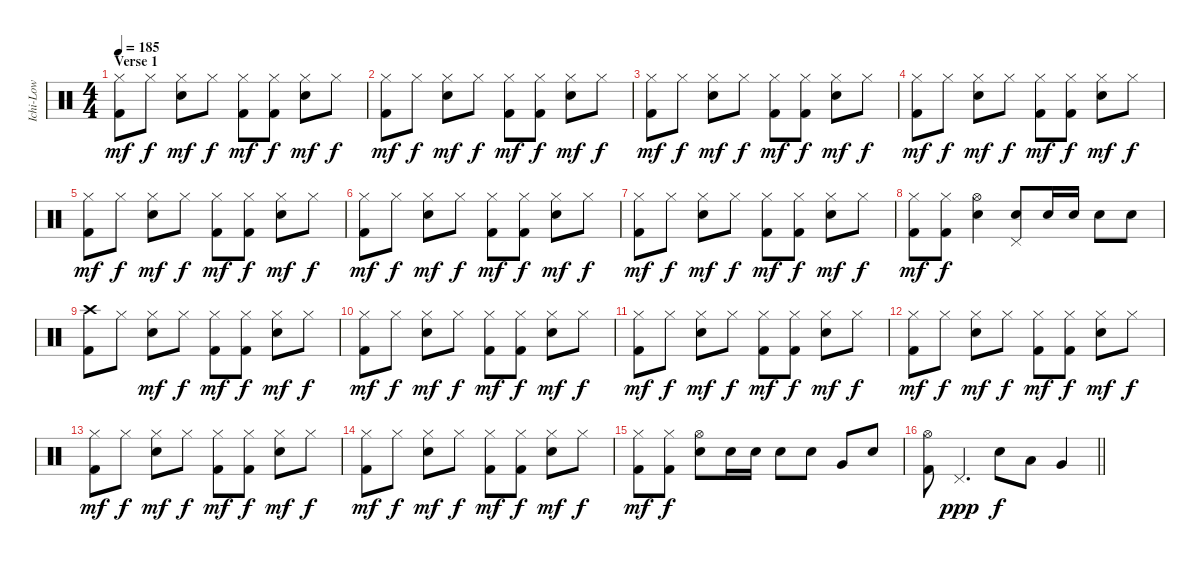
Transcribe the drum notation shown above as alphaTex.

\track ("Ichi-Low" "Ichi-Low") {instrument percussion}
\staff {score}
\articulation defaults
\ts (4 4)
\section ("" "Verse 1")
\tempo 185
\clef neutral
\ks c
("Hi-Hat (closed)" "Kick (hit) 2").8{dy mf} "Hi-Hat (closed)".8{dy f} ("Hi-Hat (closed)" "Electric Snare (hit)").8{dy mf} "Hi-Hat (closed)".8{dy f} ("Hi-Hat (closed)" "Kick (hit) 2").8{dy mf} ("Hi-Hat (closed)" "Kick (hit) 2").8{dy f} ("Hi-Hat (closed)" "Electric Snare (hit)").8{dy mf} "Hi-Hat (closed)".8{dy f} |
("Hi-Hat (closed)" "Kick (hit) 2").8{dy mf} "Hi-Hat (closed)".8{dy f} ("Hi-Hat (closed)" "Electric Snare (hit)").8{dy mf} "Hi-Hat (closed)".8{dy f} ("Hi-Hat (closed)" "Kick (hit) 2").8{dy mf} ("Hi-Hat (closed)" "Kick (hit) 2").8{dy f} ("Hi-Hat (closed)" "Electric Snare (hit)").8{dy mf} "Hi-Hat (closed)".8{dy f} |
("Hi-Hat (closed)" "Kick (hit) 2").8{dy mf} "Hi-Hat (closed)".8{dy f} ("Hi-Hat (closed)" "Electric Snare (hit)").8{dy mf} "Hi-Hat (closed)".8{dy f} ("Hi-Hat (closed)" "Kick (hit) 2").8{dy mf} ("Hi-Hat (closed)" "Kick (hit) 2").8{dy f} ("Hi-Hat (closed)" "Electric Snare (hit)").8{dy mf} "Hi-Hat (closed)".8{dy f} |
("Hi-Hat (closed)" "Kick (hit) 2").8{dy mf} "Hi-Hat (closed)".8{dy f} ("Hi-Hat (closed)" "Electric Snare (hit)").8{dy mf} "Hi-Hat (closed)".8{dy f} ("Hi-Hat (closed)" "Kick (hit) 2").8{dy mf} ("Hi-Hat (closed)" "Kick (hit) 2").8{dy f} ("Hi-Hat (closed)" "Electric Snare (hit)").8{dy mf} "Hi-Hat (closed)".8{dy f} |
("Hi-Hat (closed)" "Kick (hit) 2").8{dy mf} "Hi-Hat (closed)".8{dy f} ("Hi-Hat (closed)" "Electric Snare (hit)").8{dy mf} "Hi-Hat (closed)".8{dy f} ("Hi-Hat (closed)" "Kick (hit) 2").8{dy mf} ("Hi-Hat (closed)" "Kick (hit) 2").8{dy f} ("Hi-Hat (closed)" "Electric Snare (hit)").8{dy mf} "Hi-Hat (closed)".8{dy f} |
("Hi-Hat (closed)" "Kick (hit) 2").8{dy mf} "Hi-Hat (closed)".8{dy f} ("Hi-Hat (closed)" "Electric Snare (hit)").8{dy mf} "Hi-Hat (closed)".8{dy f} ("Hi-Hat (closed)" "Kick (hit) 2").8{dy mf} ("Hi-Hat (closed)" "Kick (hit) 2").8{dy f} ("Hi-Hat (closed)" "Electric Snare (hit)").8{dy mf} "Hi-Hat (closed)".8{dy f} |
("Hi-Hat (closed)" "Kick (hit) 2").8{dy mf} "Hi-Hat (closed)".8{dy f} ("Hi-Hat (closed)" "Electric Snare (hit)").8{dy mf} "Hi-Hat (closed)".8{dy f} ("Hi-Hat (closed)" "Kick (hit) 2").8{dy mf} ("Hi-Hat (closed)" "Kick (hit) 2").8{dy f} ("Hi-Hat (closed)" "Electric Snare (hit)").8{dy mf} "Hi-Hat (closed)".8{dy f} |
("Hi-Hat (closed)" "Kick (hit) 2").8{dy mf} ("Hi-Hat (closed)" "Kick (hit) 2").8{dy f} ("Hi-Hat (open)" "Electric Snare (hit)").4 ("Pedal Hi-Hat (hit)" "Electric Snare (hit)").8 "Electric Snare (hit)".16 "Electric Snare (hit)".16 "Electric Snare (hit)".8 "Electric Snare (hit)".8 |
("Crash high (hit)" "Kick (hit) 2").8 "Hi-Hat (closed)".8 ("Hi-Hat (closed)" "Electric Snare (hit)").8{dy mf} "Hi-Hat (closed)".8{dy f} ("Hi-Hat (closed)" "Kick (hit) 2").8{dy mf} ("Hi-Hat (closed)" "Kick (hit) 2").8{dy f} ("Hi-Hat (closed)" "Electric Snare (hit)").8{dy mf} "Hi-Hat (closed)".8{dy f} |
("Hi-Hat (closed)" "Kick (hit) 2").8{dy mf} "Hi-Hat (closed)".8{dy f} ("Hi-Hat (closed)" "Electric Snare (hit)").8{dy mf} "Hi-Hat (closed)".8{dy f} ("Hi-Hat (closed)" "Kick (hit) 2").8{dy mf} ("Hi-Hat (closed)" "Kick (hit) 2").8{dy f} ("Hi-Hat (closed)" "Electric Snare (hit)").8{dy mf} "Hi-Hat (closed)".8{dy f} |
("Hi-Hat (closed)" "Kick (hit) 2").8{dy mf} "Hi-Hat (closed)".8{dy f} ("Hi-Hat (closed)" "Electric Snare (hit)").8{dy mf} "Hi-Hat (closed)".8{dy f} ("Hi-Hat (closed)" "Kick (hit) 2").8{dy mf} ("Hi-Hat (closed)" "Kick (hit) 2").8{dy f} ("Hi-Hat (closed)" "Electric Snare (hit)").8{dy mf} "Hi-Hat (closed)".8{dy f} |
("Hi-Hat (closed)" "Kick (hit) 2").8{dy mf} "Hi-Hat (closed)".8{dy f} ("Hi-Hat (closed)" "Electric Snare (hit)").8{dy mf} "Hi-Hat (closed)".8{dy f} ("Hi-Hat (closed)" "Kick (hit) 2").8{dy mf} ("Hi-Hat (closed)" "Kick (hit) 2").8{dy f} ("Hi-Hat (closed)" "Electric Snare (hit)").8{dy mf} "Hi-Hat (closed)".8{dy f} |
("Hi-Hat (closed)" "Kick (hit) 2").8{dy mf} "Hi-Hat (closed)".8{dy f} ("Hi-Hat (closed)" "Electric Snare (hit)").8{dy mf} "Hi-Hat (closed)".8{dy f} ("Hi-Hat (closed)" "Kick (hit) 2").8{dy mf} ("Hi-Hat (closed)" "Kick (hit) 2").8{dy f} ("Hi-Hat (closed)" "Electric Snare (hit)").8{dy mf} "Hi-Hat (closed)".8{dy f} |
("Hi-Hat (closed)" "Kick (hit) 2").8{dy mf} "Hi-Hat (closed)".8{dy f} ("Hi-Hat (closed)" "Electric Snare (hit)").8{dy mf} "Hi-Hat (closed)".8{dy f} ("Hi-Hat (closed)" "Kick (hit) 2").8{dy mf} ("Hi-Hat (closed)" "Kick (hit) 2").8{dy f} ("Hi-Hat (closed)" "Electric Snare (hit)").8{dy mf} "Hi-Hat (closed)".8{dy f} |
("Hi-Hat (closed)" "Kick (hit) 2").8{dy mf} ("Hi-Hat (closed)" "Kick (hit) 2").8{dy f} ("Hi-Hat (open)" "Electric Snare (hit)").8 "Electric Snare (hit)".16 "Electric Snare (hit)".16 "Electric Snare (hit)".8 "Electric Snare (hit)".8 "Very Low Tom (hit)".8 "Electric Snare (hit)".8 |
\barLineRight lightlight
("Hi-Hat (open)" "Kick (hit) 2").8 "Pedal Hi-Hat (hit)".4{d dy ppp} "Electric Snare (hit)".8{dy f} "Low Tom (hit)".8 "Very Low Tom (hit)".4
